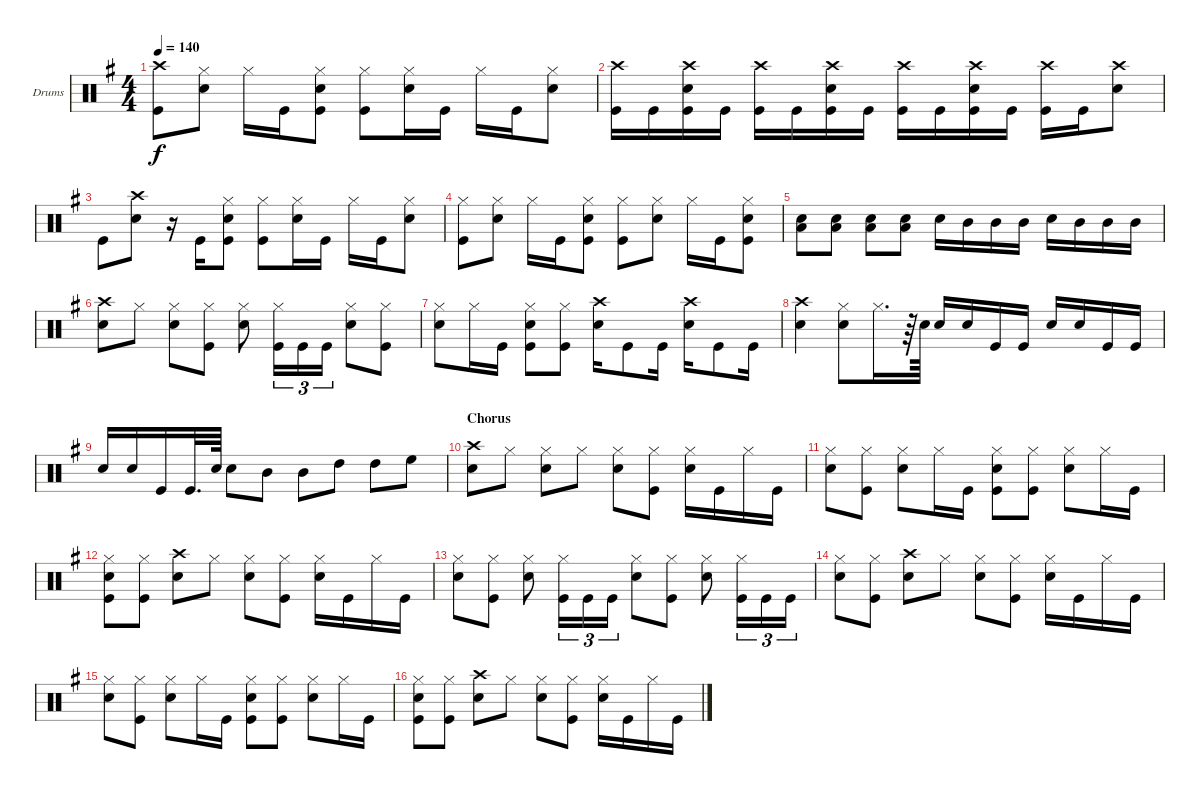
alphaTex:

\bracketExtendMode groupsimilarinstruments
\firstSystemTrackNameOrientation horizontal
\otherSystemsTrackNameOrientation horizontal
\track ("Drumkit" "Drums") {instrument percussion}
\staff {score}
\articulation defaults
\ts (4 4)
\tempo 140
\clef neutral
\scale
1.04288
\ks g
("Kick (hit)" "Crash high (hit)").8{dy f} ("Snare (hit) 2" "Hi-Hat (closed)").8 "Hi-Hat (closed)".16 "Kick (hit)".16 ("Kick (hit)" "Snare (hit) 2" "Hi-Hat (closed)").8 ("Kick (hit)" "Hi-Hat (closed)").8 ("Snare (hit) 2" "Hi-Hat (closed)").16 "Kick (hit)".16 "Hi-Hat (closed)".16 "Kick (hit)".16 ("Snare (hit) 2" "Hi-Hat (closed)").8 |
\scale
0.957125 ("Crash high (hit)" "Kick (hit)").16 "Kick (hit)".16 ("Snare (hit) 2" "Crash high (hit)" "Kick (hit)").16 "Kick (hit)".16 ("Crash high (hit)" "Kick (hit)").16 "Kick (hit)".16 ("Snare (hit) 2" "Crash high (hit)" "Kick (hit)").16 "Kick (hit)".16 ("Crash high (hit)" "Kick (hit)").16 "Kick (hit)".16 ("Snare (hit) 2" "Crash high (hit)" "Kick (hit)").16 "Kick (hit)".16 ("Crash high (hit)" "Kick (hit)").16 "Kick (hit)".16 ("Snare (hit) 2" "Crash high (hit)").8 |
\scale
1.04288 "Kick (hit)".8 ("Snare (hit) 2" "Crash high (hit)").8 r.16 "Kick (hit)".16 ("Kick (hit)" "Hi-Hat (closed)" "Snare (hit) 2").8 ("Kick (hit)" "Hi-Hat (closed)").8 ("Snare (hit) 2" "Hi-Hat (closed)").16 "Kick (hit)".16 "Hi-Hat (closed)".16 "Kick (hit)".16 ("Snare (hit) 2" "Hi-Hat (closed)").8 |
\scale
0.957125 ("Hi-Hat (closed)" "Kick (hit)").8 ("Snare (hit) 2" "Hi-Hat (closed)").8 "Hi-Hat (closed)".16 "Kick (hit)".16 ("Snare (hit) 2" "Hi-Hat (closed)" "Kick (hit)").8 ("Hi-Hat (closed)" "Kick (hit)").8 ("Snare (hit) 2" "Hi-Hat (closed)").8 "Hi-Hat (closed)".16 "Kick (hit)".16 ("Snare (hit) 2" "Hi-Hat (closed)" "Kick (hit)").8 |
\scale
1.04288 ("Low Tom (hit)" "Snare (hit) 2").8 ("Low Tom (hit)" "Snare (hit) 2").8 ("Low Tom (hit)" "Snare (hit) 2").8 ("Low Tom (hit)" "Snare (hit) 2").8 "Snare (hit) 2".16 "Mid Tom (hit)".16 "Mid Tom (hit)".16 "Mid Tom (hit)".16 "Snare (hit) 2".16 "Mid Tom (hit)".16 "Mid Tom (hit)".16 "Mid Tom (hit)".16 |
\scale
0.957125 ("Snare (hit) 2" "Crash high (hit)").8 "Hi-Hat (closed)".8 ("Snare (hit) 2" "Hi-Hat (closed)").8 ("Kick (hit)" "Hi-Hat (closed)").8 ("Hi-Hat (closed)" "Snare (hit) 2").8 ("Hi-Hat (closed)" "Kick (hit)").16{tu (3 2)} "Kick (hit)".16{tu (3 2)} "Kick (hit)".16{tu (3 2)} ("Hi-Hat (closed)" "Snare (hit) 2").8 ("Kick (hit)" "Hi-Hat (closed)").8 |
\scale
1.04288 ("Snare (hit) 2" "Hi-Hat (closed)").8 "Hi-Hat (closed)".16 "Kick (hit)".16 ("Kick (hit)" "Snare (hit) 2" "Hi-Hat (closed)").8 ("Kick (hit)" "Hi-Hat (closed)").8 ("Snare (hit) 2" "Crash high (hit)").16 "Kick (hit)".8 "Kick (hit)".16 ("Snare (hit) 2" "Crash high (hit)").16 "Kick (hit)".8 "Kick (hit)".16 |
\scale
0.957125 ("Snare (hit) 2" "Crash high (hit)").4 ("Snare (hit) 2" "Hi-Hat (closed)").8 "Hi-Hat (closed)".16{d} r.64 "Snare (hit) 2".64 "Snare (hit) 2".16 "Snare (hit) 2".16 "Kick (hit)".16 "Kick (hit)".16 "Snare (hit) 2".16 "Snare (hit) 2".16 "Kick (hit)".16 "Kick (hit)".16 |
\scale
1.04288 "Snare (hit) 2".16 "Snare (hit) 2".16 "Kick (hit)".16 "Kick (hit)".32{d} "Snare (hit) 2".64 "Snare (hit) 2".8 "Mid Tom (hit)".8 "Mid Tom (hit)".8 "High Tom (hit)".8 "High Tom (hit)".8 "High Floor Tom (hit)".8 |
\section ("" "Chorus")
\scale
0.957125 ("Crash high (hit)" "Snare (hit) 2").8 "Hi-Hat (closed)".8 ("Snare (hit) 2" "Hi-Hat (closed)").8 "Hi-Hat (closed)".8 ("Snare (hit) 2" "Hi-Hat (closed)").8 ("Kick (hit)" "Hi-Hat (closed)").8 ("Snare (hit) 2" "Hi-Hat (closed)").16 "Kick (hit)".16 "Hi-Hat (closed)".16 "Kick (hit)".16 |
\scale
1.04288 ("Hi-Hat (closed)" "Snare (hit) 2").8 ("Kick (hit)" "Hi-Hat (closed)").8 ("Snare (hit) 2" "Hi-Hat (closed)").8 "Hi-Hat (closed)".16 "Kick (hit)".16 ("Kick (hit)" "Snare (hit) 2" "Hi-Hat (closed)").8 ("Kick (hit)" "Hi-Hat (closed)").8 ("Snare (hit) 2" "Hi-Hat (closed)").8 "Hi-Hat (closed)".16 "Kick (hit)".16 |
\scale
0.957125 ("Hi-Hat (closed)" "Snare (hit) 2" "Kick (hit)").8 ("Hi-Hat (closed)" "Kick (hit)").8 ("Crash high (hit)" "Snare (hit) 2").8 "Hi-Hat (closed)".8 ("Snare (hit) 2" "Hi-Hat (closed)").8 ("Hi-Hat (closed)" "Kick (hit)").8 ("Snare (hit) 2" "Hi-Hat (closed)").16 "Kick (hit)".16 "Hi-Hat (closed)".16 "Kick (hit)".16 |
\scale
1.04288 ("Hi-Hat (closed)" "Snare (hit) 2").8 ("Kick (hit)" "Hi-Hat (closed)").8 ("Snare (hit) 2" "Hi-Hat (closed)").8 ("Hi-Hat (closed)" "Kick (hit)").16{tu (3 2)} "Kick (hit)".16{tu (3 2)} "Kick (hit)".16{tu (3 2)} ("Snare (hit) 2" "Hi-Hat (closed)").8 ("Kick (hit)" "Hi-Hat (closed)").8 ("Snare (hit) 2" "Hi-Hat (closed)").8 ("Hi-Hat (closed)" "Kick (hit)").16{tu (3 2)} "Kick (hit)".16{tu (3 2)} "Kick (hit)".16{tu (3 2)} |
\scale
0.957125 ("Hi-Hat (closed)" "Snare (hit) 2").8 ("Kick (hit)" "Hi-Hat (closed)").8 ("Crash high (hit)" "Snare (hit) 2").8 "Hi-Hat (closed)".8 ("Snare (hit) 2" "Hi-Hat (closed)").8 ("Hi-Hat (closed)" "Kick (hit)").8 ("Snare (hit) 2" "Hi-Hat (closed)").16 "Kick (hit)".16 "Hi-Hat (closed)".16 "Kick (hit)".16 |
\scale
1.04288 ("Hi-Hat (closed)" "Snare (hit) 2").8 ("Kick (hit)" "Hi-Hat (closed)").8 ("Snare (hit) 2" "Hi-Hat (closed)").8 "Hi-Hat (closed)".16 "Kick (hit)".16 ("Kick (hit)" "Snare (hit) 2" "Hi-Hat (closed)").8 ("Kick (hit)" "Hi-Hat (closed)").8 ("Snare (hit) 2" "Hi-Hat (closed)").8 "Hi-Hat (closed)".16 "Kick (hit)".16 |
\scale
0.957125 ("Hi-Hat (closed)" "Snare (hit) 2" "Kick (hit)").8 ("Hi-Hat (closed)" "Kick (hit)").8 ("Crash high (hit)" "Snare (hit) 2").8 "Hi-Hat (closed)".8 ("Snare (hit) 2" "Hi-Hat (closed)").8 ("Hi-Hat (closed)" "Kick (hit)").8 ("Snare (hit) 2" "Hi-Hat (closed)").16 "Kick (hit)".16 "Hi-Hat (closed)".16 "Kick (hit)".16
